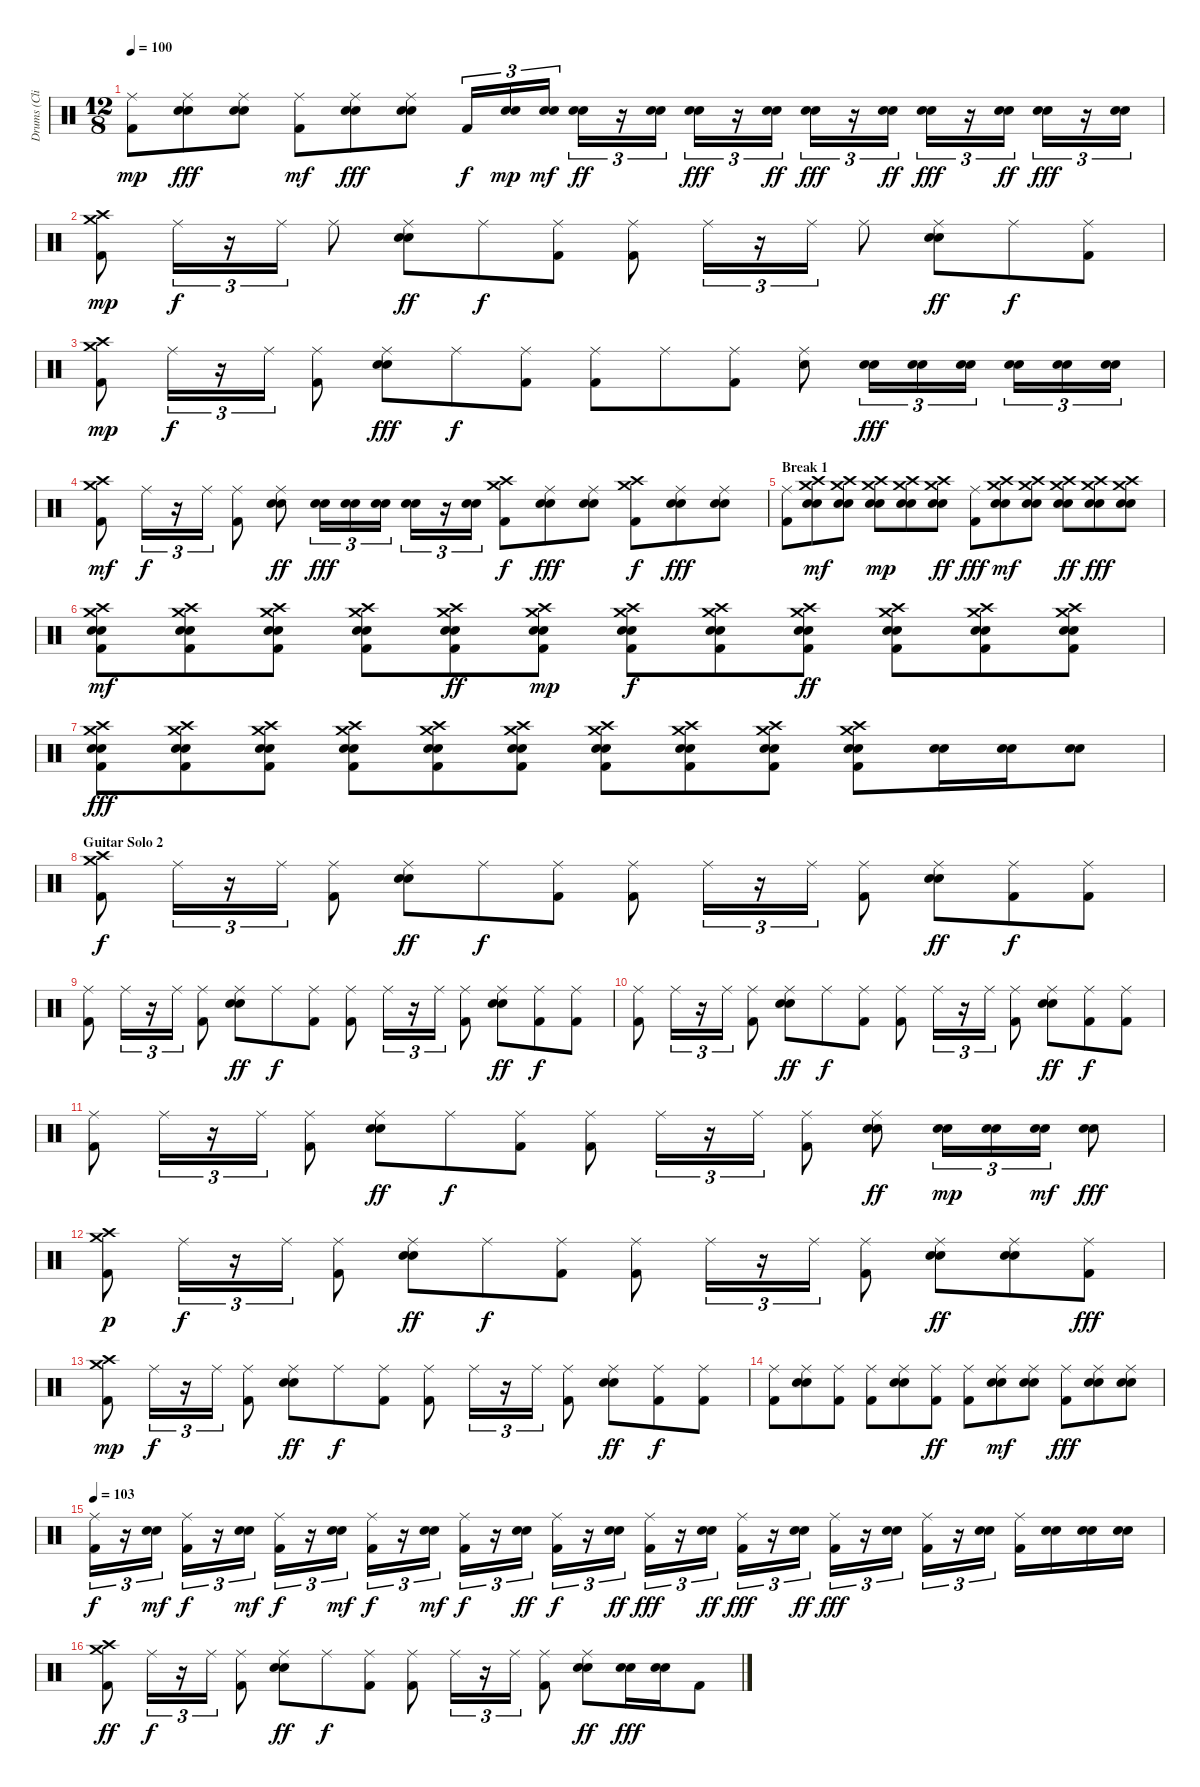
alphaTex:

\track ("Drums (Clifford)" "Drums (Cli") {instrument percussion}
\staff {score}
\articulation defaults
\ts (12 8)
\tempo 100
\clef neutral
\ks c
("Ride (middle)" "Kick (hit) 2").8{dy mp} ("Ride (middle)" "Snare (hit) 2" "Electric Snare (hit)").8{dy fff} ("Ride (middle)" "Snare (hit) 2" "Electric Snare (hit)").8 ("Ride (middle)" "Kick (hit) 2").8{dy mf} ("Ride (middle)" "Snare (hit) 2" "Electric Snare (hit)").8{dy fff} ("Ride (middle)" "Snare (hit) 2" "Electric Snare (hit)").8 "Kick (hit) 2".16{tu (3 2) dy f} ("Snare (hit) 2" "Electric Snare (hit)").16{tu (3 2) dy mp} ("Snare (hit) 2" "Electric Snare (hit)").16{tu (3 2) dy mf} ("Snare (hit) 2" "Electric Snare (hit)").16{tu (3 2) dy ff} r.16{tu (3 2)} ("Snare (hit) 2" "Electric Snare (hit)").16{tu (3 2)} ("Snare (hit) 2" "Electric Snare (hit)").16{tu (3 2) dy fff} r.16{tu (3 2)} ("Snare (hit) 2" "Electric Snare (hit)").16{tu (3 2) dy ff} ("Snare (hit) 2" "Electric Snare (hit)").16{tu (3 2) dy fff} r.16{tu (3 2)} ("Snare (hit) 2" "Electric Snare (hit)").16{tu (3 2) dy ff} ("Snare (hit) 2" "Electric Snare (hit)").16{tu (3 2) dy fff} r.16{tu (3 2)} ("Snare (hit) 2" "Electric Snare (hit)").16{tu (3 2) dy ff} ("Snare (hit) 2" "Electric Snare (hit)").16{tu (3 2) dy fff} r.16{tu (3 2)} ("Snare (hit) 2" "Electric Snare (hit)").16{tu (3 2)} |
("Crash medium (hit)" "Crash high (hit)" "Kick (hit) 2").8{dy mp} "Ride (middle)".16{tu (3 2) dy f} r.16{tu (3 2)} "Ride (middle)".16{tu (3 2)} "Ride (middle)".8 ("Ride (middle)" "Snare (hit) 2" "Electric Snare (hit)").8{dy ff} "Ride (middle)".8{dy f} ("Ride (middle)" "Kick (hit) 2").8 ("Ride (middle)" "Kick (hit) 2").8 "Ride (middle)".16{tu (3 2)} r.16{tu (3 2)} "Ride (middle)".16{tu (3 2)} "Ride (middle)".8 ("Ride (middle)" "Snare (hit) 2" "Electric Snare (hit)").8{dy ff} "Ride (middle)".8{dy f} ("Ride (middle)" "Kick (hit) 2").8 |
("Crash medium (hit)" "Crash high (hit)" "Kick (hit) 2").8{dy mp} "Ride (middle)".16{tu (3 2) dy f} r.16{tu (3 2)} "Ride (middle)".16{tu (3 2)} ("Ride (middle)" "Kick (hit) 2").8 ("Ride (middle)" "Snare (hit) 2" "Electric Snare (hit)").8{dy fff} "Ride (middle)".8{dy f} ("Ride (middle)" "Kick (hit) 2").8 ("Ride (middle)" "Kick (hit) 2").8 "Ride (middle)".8 ("Ride (middle)" "Kick (hit) 2").8 ("Ride (middle)" "Snare (hit) 2").8 ("Snare (hit) 2" "Electric Snare (hit)").16{tu (3 2) dy fff} ("Snare (hit) 2" "Electric Snare (hit)").16{tu (3 2)} ("Snare (hit) 2" "Electric Snare (hit)").16{tu (3 2)} ("Snare (hit) 2" "Electric Snare (hit)").16{tu (3 2)} ("Snare (hit) 2" "Electric Snare (hit)").16{tu (3 2)} ("Snare (hit) 2" "Electric Snare (hit)").16{tu (3 2)} |
("Crash medium (hit)" "Crash high (hit)" "Kick (hit) 2").8{dy mf} "Ride (middle)".16{tu (3 2) dy f} r.16{tu (3 2)} "Ride (middle)".16{tu (3 2)} ("Ride (middle)" "Kick (hit) 2").8 ("Ride (middle)" "Snare (hit) 2" "Electric Snare (hit)").8{dy ff} ("Snare (hit) 2" "Electric Snare (hit)").16{tu (3 2) dy fff} ("Snare (hit) 2" "Electric Snare (hit)").16{tu (3 2)} ("Snare (hit) 2" "Electric Snare (hit)").16{tu (3 2)} ("Snare (hit) 2" "Electric Snare (hit)").16{tu (3 2)} r.16{tu (3 2)} ("Snare (hit) 2" "Electric Snare (hit)").16{tu (3 2)} ("Crash medium (hit)" "Crash high (hit)" "Kick (hit) 2").8{dy f} ("Ride (middle)" "Snare (hit) 2" "Electric Snare (hit)").8{dy fff} ("Ride (middle)" "Snare (hit) 2" "Electric Snare (hit)").8 ("Crash medium (hit)" "Crash high (hit)" "Kick (hit) 2").8{dy f} ("Ride (middle)" "Snare (hit) 2" "Electric Snare (hit)").8{dy fff} ("Ride (middle)" "Snare (hit) 2" "Electric Snare (hit)").8 |
\section ("" "Break 1")
("Ride (middle)" "Kick (hit) 2").8 ("Crash medium (hit)" "Crash high (hit)" "Snare (hit) 2" "Electric Snare (hit)").8{dy mf} ("Crash medium (hit)" "Crash high (hit)" "Snare (hit) 2" "Electric Snare (hit)").8 ("Crash medium (hit)" "Crash high (hit)" "Snare (hit) 2" "Electric Snare (hit)").8{dy mp} ("Crash medium (hit)" "Crash high (hit)" "Snare (hit) 2" "Electric Snare (hit)").8 ("Crash medium (hit)" "Crash high (hit)" "Snare (hit) 2" "Electric Snare (hit)").8{dy ff} ("Ride (middle)" "Kick (hit) 2").8{dy fff} ("Crash medium (hit)" "Crash high (hit)" "Snare (hit) 2" "Electric Snare (hit)").8{dy mf} ("Crash medium (hit)" "Crash high (hit)" "Snare (hit) 2" "Electric Snare (hit)").8 ("Crash medium (hit)" "Crash high (hit)" "Snare (hit) 2" "Electric Snare (hit)").8{dy ff} ("Crash medium (hit)" "Crash high (hit)" "Snare (hit) 2" "Electric Snare (hit)").8{dy fff} ("Crash medium (hit)" "Crash high (hit)" "Snare (hit) 2" "Electric Snare (hit)").8 |
("Crash medium (hit)" "Crash high (hit)" "Snare (hit) 2" "Electric Snare (hit)" "Kick (hit) 2").8{dy mf volume 12} ("Crash medium (hit)" "Crash high (hit)" "Snare (hit) 2" "Electric Snare (hit)" "Kick (hit) 2").8 ("Crash medium (hit)" "Crash high (hit)" "Snare (hit) 2" "Electric Snare (hit)" "Kick (hit) 2").8 ("Crash medium (hit)" "Crash high (hit)" "Snare (hit) 2" "Electric Snare (hit)" "Kick (hit) 2").8 ("Crash medium (hit)" "Crash high (hit)" "Snare (hit) 2" "Electric Snare (hit)" "Kick (hit) 2").8{dy ff} ("Crash medium (hit)" "Crash high (hit)" "Snare (hit) 2" "Electric Snare (hit)" "Kick (hit) 2").8{dy mp} ("Crash medium (hit)" "Crash high (hit)" "Snare (hit) 2" "Electric Snare (hit)" "Kick (hit) 2").8{dy f volume 16} ("Crash medium (hit)" "Crash high (hit)" "Snare (hit) 2" "Electric Snare (hit)" "Kick (hit) 2").8 ("Crash medium (hit)" "Crash high (hit)" "Snare (hit) 2" "Electric Snare (hit)" "Kick (hit) 2").8{dy ff} ("Crash medium (hit)" "Crash high (hit)" "Snare (hit) 2" "Electric Snare (hit)" "Kick (hit) 2").8 ("Crash medium (hit)" "Crash high (hit)" "Snare (hit) 2" "Electric Snare (hit)" "Kick (hit) 2").8 ("Crash medium (hit)" "Crash high (hit)" "Snare (hit) 2" "Electric Snare (hit)" "Kick (hit) 2").8 |
("Crash medium (hit)" "Crash high (hit)" "Snare (hit) 2" "Electric Snare (hit)" "Kick (hit) 2").8{dy fff} ("Crash medium (hit)" "Crash high (hit)" "Snare (hit) 2" "Electric Snare (hit)" "Kick (hit) 2").8 ("Crash medium (hit)" "Crash high (hit)" "Snare (hit) 2" "Electric Snare (hit)" "Kick (hit) 2").8 ("Crash medium (hit)" "Crash high (hit)" "Snare (hit) 2" "Electric Snare (hit)" "Kick (hit) 2").8 ("Crash medium (hit)" "Crash high (hit)" "Snare (hit) 2" "Electric Snare (hit)" "Kick (hit) 2").8 ("Crash medium (hit)" "Crash high (hit)" "Snare (hit) 2" "Electric Snare (hit)" "Kick (hit) 2").8 ("Crash medium (hit)" "Crash high (hit)" "Snare (hit) 2" "Electric Snare (hit)" "Kick (hit) 2").8 ("Crash medium (hit)" "Crash high (hit)" "Snare (hit) 2" "Electric Snare (hit)" "Kick (hit) 2").8 ("Crash medium (hit)" "Crash high (hit)" "Snare (hit) 2" "Electric Snare (hit)" "Kick (hit) 2").8 ("Crash medium (hit)" "Crash high (hit)" "Snare (hit) 2" "Electric Snare (hit)" "Kick (hit) 2").8 ("Snare (hit) 2" "Electric Snare (hit)").16 ("Snare (hit) 2" "Electric Snare (hit)").16 ("Snare (hit) 2" "Electric Snare (hit)").8 |
\section ("" "Guitar Solo 2")
("Crash medium (hit)" "Crash high (hit)" "Kick (hit) 2").8{dy f volume 13} "Ride (middle)".16{tu (3 2)} r.16{tu (3 2)} "Ride (middle)".16{tu (3 2)} ("Ride (middle)" "Kick (hit) 2").8 ("Ride (middle)" "Snare (hit) 2" "Electric Snare (hit)").8{dy ff} "Ride (middle)".8{dy f} ("Ride (middle)" "Kick (hit) 2").8 ("Ride (middle)" "Kick (hit) 2").8 "Ride (middle)".16{tu (3 2)} r.16{tu (3 2)} "Ride (middle)".16{tu (3 2)} ("Ride (middle)" "Kick (hit) 2").8 ("Ride (middle)" "Snare (hit) 2" "Electric Snare (hit)").8{dy ff} ("Ride (middle)" "Kick (hit) 2").8{dy f} ("Ride (middle)" "Kick (hit) 2").8 |
("Ride (middle)" "Kick (hit) 2").8 "Ride (middle)".16{tu (3 2)} r.16{tu (3 2)} "Ride (middle)".16{tu (3 2)} ("Ride (middle)" "Kick (hit) 2").8 ("Ride (middle)" "Snare (hit) 2" "Electric Snare (hit)").8{dy ff} "Ride (middle)".8{dy f} ("Ride (middle)" "Kick (hit) 2").8 ("Ride (middle)" "Kick (hit) 2").8 "Ride (middle)".16{tu (3 2)} r.16{tu (3 2)} "Ride (middle)".16{tu (3 2)} ("Ride (middle)" "Kick (hit) 2").8 ("Ride (middle)" "Snare (hit) 2" "Electric Snare (hit)").8{dy ff} ("Ride (middle)" "Kick (hit) 2").8{dy f} ("Ride (middle)" "Kick (hit) 2").8 |
("Ride (middle)" "Kick (hit) 2").8 "Ride (middle)".16{tu (3 2)} r.16{tu (3 2)} "Ride (middle)".16{tu (3 2)} ("Ride (middle)" "Kick (hit) 2").8 ("Ride (middle)" "Snare (hit) 2" "Electric Snare (hit)").8{dy ff} "Ride (middle)".8{dy f} ("Ride (middle)" "Kick (hit) 2").8 ("Ride (middle)" "Kick (hit) 2").8 "Ride (middle)".16{tu (3 2)} r.16{tu (3 2)} "Ride (middle)".16{tu (3 2)} ("Ride (middle)" "Kick (hit) 2").8 ("Ride (middle)" "Snare (hit) 2" "Electric Snare (hit)").8{dy ff} ("Ride (middle)" "Kick (hit) 2").8{dy f} ("Ride (middle)" "Kick (hit) 2").8 |
("Ride (middle)" "Kick (hit) 2").8 "Ride (middle)".16{tu (3 2)} r.16{tu (3 2)} "Ride (middle)".16{tu (3 2)} ("Ride (middle)" "Kick (hit) 2").8 ("Ride (middle)" "Snare (hit) 2" "Electric Snare (hit)").8{dy ff} "Ride (middle)".8{dy f} ("Ride (middle)" "Kick (hit) 2").8 ("Ride (middle)" "Kick (hit) 2").8 "Ride (middle)".16{tu (3 2)} r.16{tu (3 2)} "Ride (middle)".16{tu (3 2)} ("Ride (middle)" "Kick (hit) 2").8 ("Ride (middle)" "Snare (hit) 2" "Electric Snare (hit)").8{dy ff} ("Snare (hit) 2" "Electric Snare (hit)").16{tu (3 2) dy mp} ("Snare (hit) 2" "Electric Snare (hit)").16{tu (3 2)} ("Snare (hit) 2" "Electric Snare (hit)").16{tu (3 2) dy mf} ("Snare (hit) 2" "Electric Snare (hit)").8{dy fff} |
("Crash medium (hit)" "Crash high (hit)" "Kick (hit) 2").8{dy p} "Ride (middle)".16{tu (3 2) dy f} r.16{tu (3 2)} "Ride (middle)".16{tu (3 2)} ("Ride (middle)" "Kick (hit) 2").8 ("Ride (middle)" "Snare (hit) 2" "Electric Snare (hit)").8{dy ff} "Ride (middle)".8{dy f} ("Ride (middle)" "Kick (hit) 2").8 ("Ride (middle)" "Kick (hit) 2").8 "Ride (middle)".16{tu (3 2)} r.16{tu (3 2)} "Ride (middle)".16{tu (3 2)} ("Ride (middle)" "Kick (hit) 2").8 ("Ride (middle)" "Snare (hit) 2" "Electric Snare (hit)").8{dy ff} ("Ride (middle)" "Snare (hit) 2" "Electric Snare (hit)").8 ("Ride (middle)" "Kick (hit) 2").8{dy fff} |
("Crash medium (hit)" "Crash high (hit)" "Kick (hit) 2").8{dy mp} "Ride (middle)".16{tu (3 2) dy f} r.16{tu (3 2)} "Ride (middle)".16{tu (3 2)} ("Ride (middle)" "Kick (hit) 2").8 ("Ride (middle)" "Snare (hit) 2" "Electric Snare (hit)").8{dy ff} "Ride (middle)".8{dy f} ("Ride (middle)" "Kick (hit) 2").8 ("Ride (middle)" "Kick (hit) 2").8 "Ride (middle)".16{tu (3 2)} r.16{tu (3 2)} "Ride (middle)".16{tu (3 2)} ("Ride (middle)" "Kick (hit) 2").8 ("Ride (middle)" "Snare (hit) 2" "Electric Snare (hit)").8{dy ff} ("Ride (middle)" "Kick (hit) 2").8{dy f} ("Ride (middle)" "Kick (hit) 2").8 |
("Ride (middle)" "Kick (hit) 2").8 ("Ride (middle)" "Snare (hit) 2" "Electric Snare (hit)").8 ("Ride (middle)" "Kick (hit) 2").8 ("Ride (middle)" "Kick (hit) 2").8 ("Ride (middle)" "Snare (hit) 2" "Electric Snare (hit)").8 ("Ride (middle)" "Kick (hit) 2").8{dy ff} ("Ride (middle)" "Kick (hit) 2").8 ("Ride (middle)" "Snare (hit) 2" "Electric Snare (hit)").8{dy mf} ("Ride (middle)" "Snare (hit) 2" "Electric Snare (hit)").8 ("Ride (middle)" "Kick (hit) 2").8{dy fff} ("Ride (middle)" "Snare (hit) 2" "Electric Snare (hit)").8 ("Ride (middle)" "Snare (hit) 2" "Electric Snare (hit)").8 |
\tempo 103
("Ride (middle)" "Kick (hit) 2").16{tu (3 2) dy f volume 16} r.16{tu (3 2)} ("Snare (hit) 2" "Electric Snare (hit)").16{tu (3 2) dy mf} ("Ride (middle)" "Kick (hit) 2").16{tu (3 2) dy f} r.16{tu (3 2)} ("Snare (hit) 2" "Electric Snare (hit)").16{tu (3 2) dy mf} ("Ride (middle)" "Kick (hit) 2").16{tu (3 2) dy f} r.16{tu (3 2)} ("Snare (hit) 2" "Electric Snare (hit)").16{tu (3 2) dy mf} ("Ride (middle)" "Kick (hit) 2").16{tu (3 2) dy f} r.16{tu (3 2)} ("Snare (hit) 2" "Electric Snare (hit)").16{tu (3 2) dy mf} ("Ride (middle)" "Kick (hit) 2").16{tu (3 2) dy f} r.16{tu (3 2)} ("Snare (hit) 2" "Electric Snare (hit)").16{tu (3 2) dy ff} ("Ride (middle)" "Kick (hit) 2").16{tu (3 2) dy f} r.16{tu (3 2)} ("Snare (hit) 2" "Electric Snare (hit)").16{tu (3 2) dy ff} ("Ride (middle)" "Kick (hit) 2").16{tu (3 2) dy fff} r.16{tu (3 2)} ("Snare (hit) 2" "Electric Snare (hit)").16{tu (3 2) dy ff} ("Ride (middle)" "Kick (hit) 2").16{tu (3 2) dy fff} r.16{tu (3 2)} ("Snare (hit) 2" "Electric Snare (hit)").16{tu (3 2) dy ff} ("Ride (middle)" "Kick (hit) 2").16{tu (3 2) dy fff} r.16{tu (3 2)} ("Snare (hit) 2" "Electric Snare (hit)").16{tu (3 2)} ("Ride (middle)" "Kick (hit) 2").16{tu (3 2)} r.16{tu (3 2)} ("Snare (hit) 2" "Electric Snare (hit)").16{tu (3 2)} ("Ride (middle)" "Kick (hit) 2").16 ("Snare (hit) 2" "Electric Snare (hit)").16 ("Snare (hit) 2" "Electric Snare (hit)").16 ("Snare (hit) 2" "Electric Snare (hit)").16 |
("Crash medium (hit)" "Crash high (hit)" "Kick (hit) 2").8{dy ff} "Ride (middle)".16{tu (3 2) dy f} r.16{tu (3 2)} "Ride (middle)".16{tu (3 2)} ("Ride (middle)" "Kick (hit) 2").8 ("Ride (middle)" "Snare (hit) 2" "Electric Snare (hit)").8{dy ff} "Ride (middle)".8{dy f} ("Ride (middle)" "Kick (hit) 2").8 ("Ride (middle)" "Kick (hit) 2").8 "Ride (middle)".16{tu (3 2)} r.16{tu (3 2)} "Ride (middle)".16{tu (3 2)} ("Ride (middle)" "Kick (hit) 2").8 ("Ride (middle)" "Snare (hit) 2" "Electric Snare (hit)").8{dy ff} ("Snare (hit) 2" "Electric Snare (hit)").16{dy fff} ("Snare (hit) 2" "Electric Snare (hit)").16 "Kick (hit) 2".8
